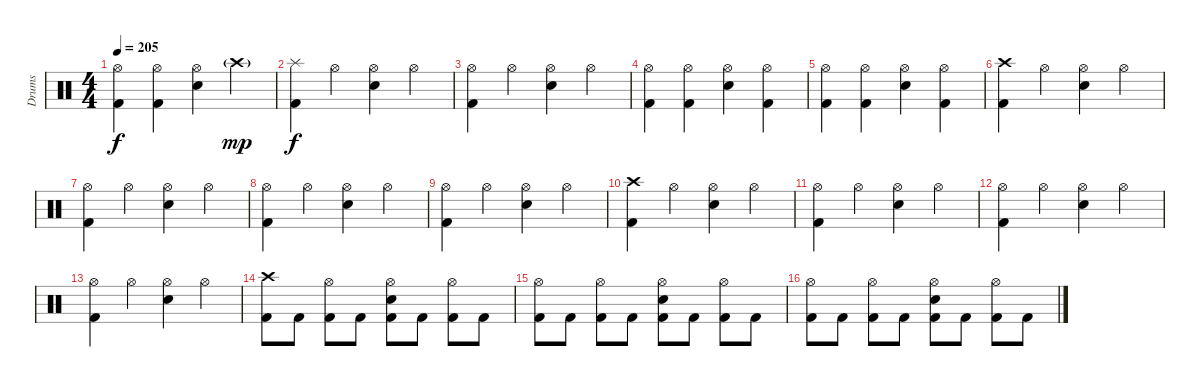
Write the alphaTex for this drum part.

\track ("Drums" "Drums") {instrument percussion}
\staff {score}
\articulation defaults
\ts (4 4)
\tempo 205
\clef neutral
\ks c
("Hi-Hat (open)" "Kick (hit) 2").4{dy f} ("Hi-Hat (open)" "Kick (hit) 2").4 ("Hi-Hat (open)" "Electric Snare (hit)").4 "Crash high (hit)"{g}.4{dy mp} |
("Splash (hit)" "Kick (hit) 2").4{dy f} "Hi-Hat (open)".4 ("Hi-Hat (open)" "Electric Snare (hit)").4 "Hi-Hat (open)".4 |
("Hi-Hat (open)" "Kick (hit) 2").4 "Hi-Hat (open)".4 ("Hi-Hat (open)" "Electric Snare (hit)").4 "Hi-Hat (open)".4 |
("Hi-Hat (open)" "Kick (hit) 2").4 ("Hi-Hat (open)" "Kick (hit) 2").4 ("Hi-Hat (open)" "Electric Snare (hit)").4 ("Hi-Hat (open)" "Kick (hit) 2").4 |
("Hi-Hat (open)" "Kick (hit) 2").4 ("Hi-Hat (open)" "Kick (hit) 2").4 ("Hi-Hat (open)" "Electric Snare (hit)").4 ("Hi-Hat (open)" "Kick (hit) 2").4 |
("Crash high (hit)" "Kick (hit) 2").4 "Hi-Hat (open)".4 ("Hi-Hat (open)" "Electric Snare (hit)").4 "Hi-Hat (open)".4 |
("Hi-Hat (open)" "Kick (hit) 2").4 "Hi-Hat (open)".4 ("Hi-Hat (open)" "Electric Snare (hit)").4 "Hi-Hat (open)".4 |
("Hi-Hat (open)" "Kick (hit) 2").4 "Hi-Hat (open)".4 ("Hi-Hat (open)" "Electric Snare (hit)").4 "Hi-Hat (open)".4 |
("Hi-Hat (open)" "Kick (hit) 2").4 "Hi-Hat (open)".4 ("Hi-Hat (open)" "Electric Snare (hit)").4 "Hi-Hat (open)".4 |
("Crash high (hit)" "Kick (hit) 2").4 "Hi-Hat (open)".4 ("Hi-Hat (open)" "Electric Snare (hit)").4 "Hi-Hat (open)".4 |
("Hi-Hat (open)" "Kick (hit) 2").4 "Hi-Hat (open)".4 ("Hi-Hat (open)" "Electric Snare (hit)").4 "Hi-Hat (open)".4 |
("Hi-Hat (open)" "Kick (hit) 2").4 "Hi-Hat (open)".4 ("Hi-Hat (open)" "Electric Snare (hit)").4 "Hi-Hat (open)".4 |
("Hi-Hat (open)" "Kick (hit) 2").4 "Hi-Hat (open)".4 ("Hi-Hat (open)" "Electric Snare (hit)").4 "Hi-Hat (open)".4 |
("Crash high (hit)" "Kick (hit) 2").8 "Kick (hit) 2".8 ("Hi-Hat (open)" "Kick (hit) 2").8 "Kick (hit) 2".8 ("Hi-Hat (open)" "Electric Snare (hit)" "Kick (hit) 2").8 "Kick (hit) 2".8 ("Hi-Hat (open)" "Kick (hit) 2").8 "Kick (hit) 2".8 |
("Hi-Hat (open)" "Kick (hit) 2").8 "Kick (hit) 2".8 ("Hi-Hat (open)" "Kick (hit) 2").8 "Kick (hit) 2".8 ("Hi-Hat (open)" "Electric Snare (hit)" "Kick (hit) 2").8 "Kick (hit) 2".8 ("Hi-Hat (open)" "Kick (hit) 2").8 "Kick (hit) 2".8 |
("Hi-Hat (open)" "Kick (hit) 2").8 "Kick (hit) 2".8 ("Hi-Hat (open)" "Kick (hit) 2").8 "Kick (hit) 2".8 ("Hi-Hat (open)" "Electric Snare (hit)" "Kick (hit) 2").8 "Kick (hit) 2".8 ("Hi-Hat (open)" "Kick (hit) 2").8 "Kick (hit) 2".8
